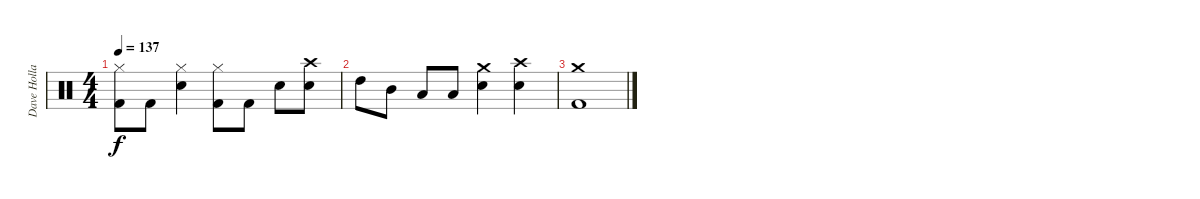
\track ("Dave Holland" "Dave Holla") {instrument percussion}
\staff {score}
\articulation defaults
\ts (4 4)
\tempo 137
\clef neutral
\ks c
("Hi-Hat (closed)" "Kick (hit) 2").8{dy f} "Kick (hit) 2".8 ("Hi-Hat (closed)" "Snare (hit) 2").4 ("Hi-Hat (closed)" "Kick (hit) 2").8 "Kick (hit) 2".8 "Snare (hit) 2".8 ("Crash high (hit)" "Snare (hit) 2").8 |
"High Tom (hit)".8 "Mid Tom (hit)".8 "Low Tom (hit)".8 "Low Floor Tom (hit)".8 ("Crash medium (hit)" "Snare (hit) 2").4 ("Crash high (hit)" "Snare (hit) 2").4 |
("Crash medium (hit)" "Kick (hit) 2").1
